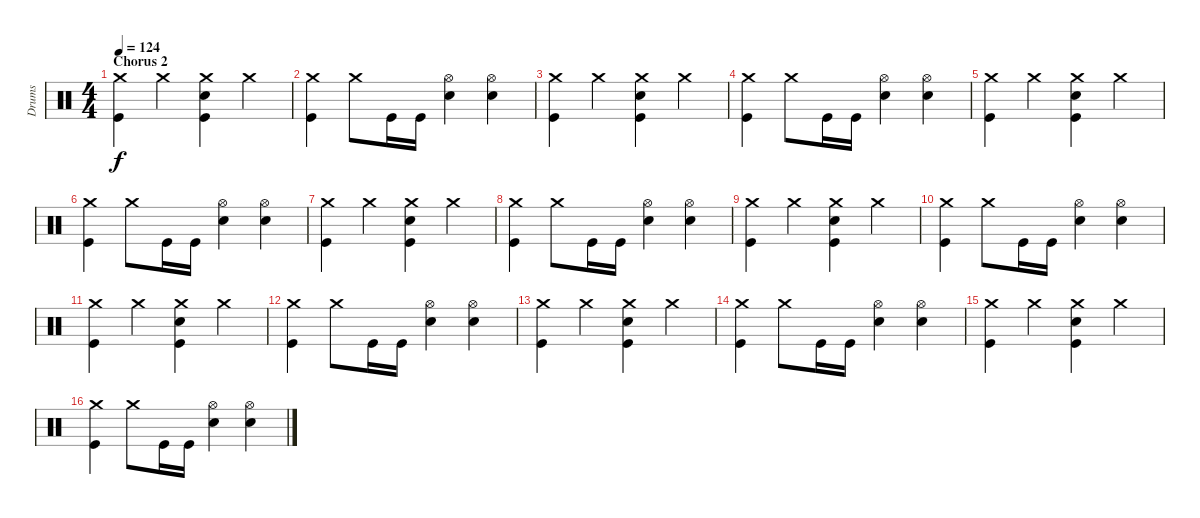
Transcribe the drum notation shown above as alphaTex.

\track ("Drums" "Drums") {instrument percussion}
\staff {score}
\articulation defaults
\ts (4 4)
\section ("" "Chorus 2")
\tempo 124
\clef neutral
\ks c
("Crash medium (hit)" "Kick (hit)").4{dy f} "Crash medium (hit)".4 ("Kick (hit)" "Crash medium (hit)" "Electric Snare (hit)").4 "Crash medium (hit)".4 |
("Crash medium (hit)" "Kick (hit)").4 "Crash medium (hit)".8 "Kick (hit)".16 "Kick (hit)".16 ("Hi-Hat (open)" "Electric Snare (hit)").4 ("Hi-Hat (open)" "Electric Snare (hit)").4 |
("Crash medium (hit)" "Kick (hit)").4 "Crash medium (hit)".4 ("Kick (hit)" "Crash medium (hit)" "Electric Snare (hit)").4 "Crash medium (hit)".4 |
("Crash medium (hit)" "Kick (hit)").4 "Crash medium (hit)".8 "Kick (hit)".16 "Kick (hit)".16 ("Hi-Hat (open)" "Electric Snare (hit)").4 ("Hi-Hat (open)" "Electric Snare (hit)").4 |
("Crash medium (hit)" "Kick (hit)").4 "Crash medium (hit)".4 ("Kick (hit)" "Crash medium (hit)" "Electric Snare (hit)").4 "Crash medium (hit)".4 |
("Crash medium (hit)" "Kick (hit)").4 "Crash medium (hit)".8 "Kick (hit)".16 "Kick (hit)".16 ("Hi-Hat (open)" "Electric Snare (hit)").4 ("Hi-Hat (open)" "Electric Snare (hit)").4 |
("Crash medium (hit)" "Kick (hit)").4 "Crash medium (hit)".4 ("Kick (hit)" "Crash medium (hit)" "Electric Snare (hit)").4 "Crash medium (hit)".4 |
("Crash medium (hit)" "Kick (hit)").4 "Crash medium (hit)".8 "Kick (hit)".16 "Kick (hit)".16 ("Hi-Hat (open)" "Electric Snare (hit)").4 ("Hi-Hat (open)" "Electric Snare (hit)").4 |
("Crash medium (hit)" "Kick (hit)").4 "Crash medium (hit)".4 ("Kick (hit)" "Crash medium (hit)" "Electric Snare (hit)").4 "Crash medium (hit)".4 |
("Crash medium (hit)" "Kick (hit)").4 "Crash medium (hit)".8 "Kick (hit)".16 "Kick (hit)".16 ("Hi-Hat (open)" "Electric Snare (hit)").4 ("Hi-Hat (open)" "Electric Snare (hit)").4 |
("Crash medium (hit)" "Kick (hit)").4 "Crash medium (hit)".4 ("Kick (hit)" "Crash medium (hit)" "Electric Snare (hit)").4 "Crash medium (hit)".4 |
("Crash medium (hit)" "Kick (hit)").4 "Crash medium (hit)".8 "Kick (hit)".16 "Kick (hit)".16 ("Hi-Hat (open)" "Electric Snare (hit)").4 ("Hi-Hat (open)" "Electric Snare (hit)").4 |
("Crash medium (hit)" "Kick (hit)").4 "Crash medium (hit)".4 ("Kick (hit)" "Crash medium (hit)" "Electric Snare (hit)").4 "Crash medium (hit)".4 |
("Crash medium (hit)" "Kick (hit)").4 "Crash medium (hit)".8 "Kick (hit)".16 "Kick (hit)".16 ("Hi-Hat (open)" "Electric Snare (hit)").4 ("Hi-Hat (open)" "Electric Snare (hit)").4 |
("Crash medium (hit)" "Kick (hit)").4 "Crash medium (hit)".4 ("Kick (hit)" "Crash medium (hit)" "Electric Snare (hit)").4 "Crash medium (hit)".4 |
("Crash medium (hit)" "Kick (hit)").4 "Crash medium (hit)".8 "Kick (hit)".16 "Kick (hit)".16 ("Hi-Hat (open)" "Electric Snare (hit)").4 ("Hi-Hat (open)" "Electric Snare (hit)").4
